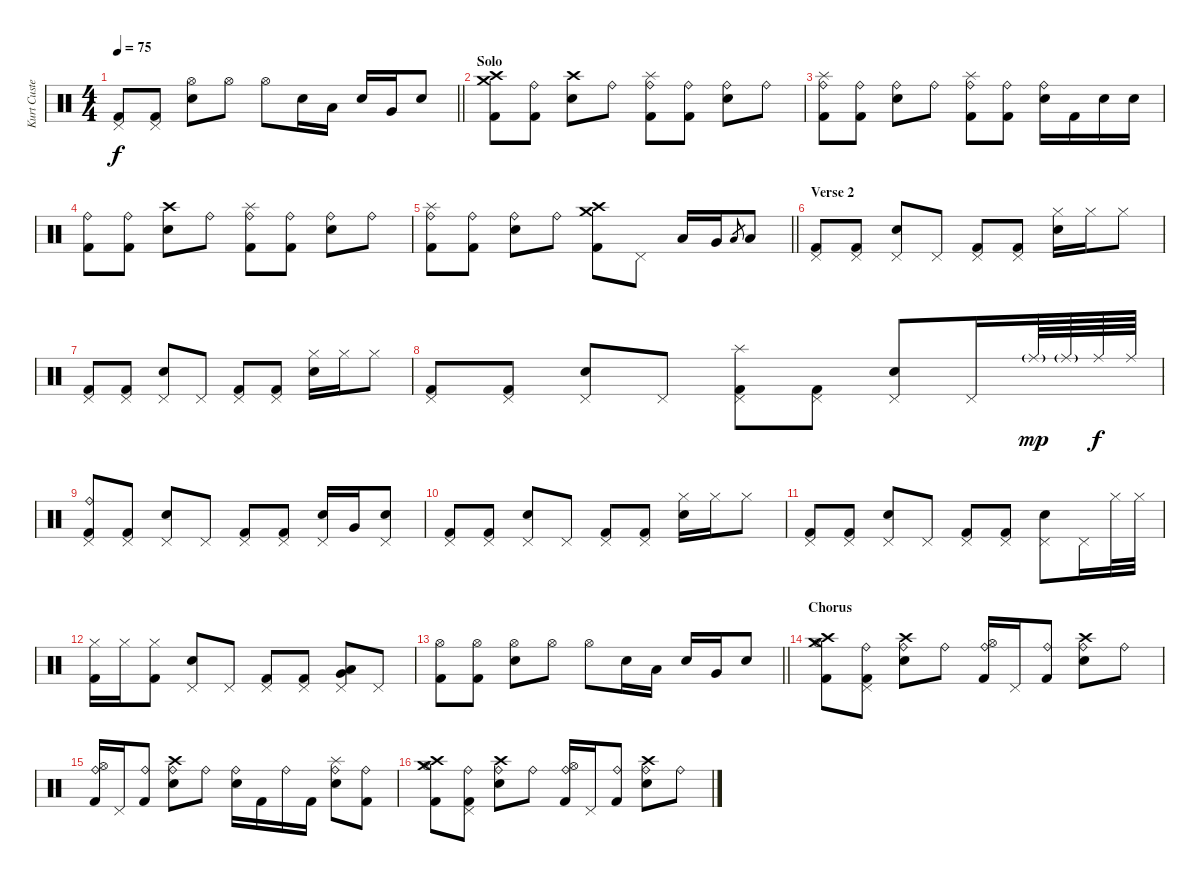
\track ("Kurt Custer - Drums and Percussion" "Kurt Custe") {instrument percussion}
\staff
\articulation defaults
\ts (4 4)
\tempo 75
\clef neutral
\barLineRight lightlight
\ks c
("Pedal Hi-Hat (hit)" "Kick (hit) 2").8{dy f} ("Pedal Hi-Hat (hit)" "Kick (hit) 2").8 ("Snare (hit) 2" "Hi-Hat (open)").8 "Hi-Hat (open)".8 "Hi-Hat (open)".8 "Snare (hit) 2".16 "Low Tom (hit)".16 "Snare (hit) 2".16 "Very Low Tom (hit)".16 "Snare (hit) 2".8 |
\section ("" "Solo")
("Crash medium (hit)" "Crash high (hit)" "Kick (hit) 2").8 ("Ride (bell)" "Kick (hit) 2").8 ("Crash high (hit)" "Snare (hit) 2").8 "Ride (bell)".8 ("Ride (bell)" "Splash (hit)" "Kick (hit) 2").8 ("Ride (bell)" "Kick (hit) 2").8 ("Ride (bell)" "Snare (hit) 2").8 "Ride (bell)".8 |
("Ride (bell)" "Splash (hit)" "Kick (hit) 2").8 ("Ride (bell)" "Kick (hit) 2").8 ("Ride (bell)" "Snare (hit) 2").8 "Ride (bell)".8 ("Ride (bell)" "Splash (hit)" "Kick (hit) 2").8 ("Ride (bell)" "Kick (hit) 2").8 ("Ride (bell)" "Snare (hit) 2").16 "Kick (hit) 2".16 "Snare (hit) 2".16 "Snare (hit) 2".16 |
("Ride (bell)" "Kick (hit) 2").8 ("Ride (bell)" "Kick (hit) 2").8 ("Crash high (hit)" "Snare (hit) 2").8 "Ride (bell)".8 ("Ride (bell)" "Splash (hit)" "Kick (hit) 2").8 ("Ride (bell)" "Kick (hit) 2").8 ("Ride (bell)" "Snare (hit) 2").8 "Ride (bell)".8 |
\barLineRight lightlight
("Ride (bell)" "Splash (hit)" "Kick (hit) 2").8 ("Ride (bell)" "Kick (hit) 2").8 ("Ride (bell)" "Snare (hit) 2").8 "Ride (bell)".8 ("Crash medium (hit)" "Crash high (hit)" "Kick (hit) 2").8 "Pedal Hi-Hat (hit)".8 "Low Tom (hit)".16 "Very Low Tom (hit)".16 "Low Floor Tom (hit)".8{gr} "Low Floor Tom (hit)".8 |
\section ("" "Verse 2")
("Pedal Hi-Hat (hit)" "Kick (hit) 2").8 ("Pedal Hi-Hat (hit)" "Kick (hit) 2").8 ("Snare (hit) 2" "Pedal Hi-Hat (hit)").8 "Pedal Hi-Hat (hit)".8 ("Pedal Hi-Hat (hit)" "Kick (hit) 2").8 ("Pedal Hi-Hat (hit)" "Kick (hit) 2").8 ("Snare (hit) 2" "Hi-Hat (closed)").16 "Hi-Hat (closed)".16 "Hi-Hat (closed)".8 |
("Pedal Hi-Hat (hit)" "Kick (hit) 2").8 ("Pedal Hi-Hat (hit)" "Kick (hit) 2").8 ("Snare (hit) 2" "Pedal Hi-Hat (hit)").8 "Pedal Hi-Hat (hit)".8 ("Pedal Hi-Hat (hit)" "Kick (hit) 2").8 ("Pedal Hi-Hat (hit)" "Kick (hit) 2").8 ("Snare (hit) 2" "Hi-Hat (closed)").16 "Hi-Hat (closed)".16 "Hi-Hat (closed)".8 |
("Pedal Hi-Hat (hit)" "Kick (hit) 2").8 ("Pedal Hi-Hat (hit)" "Kick (hit) 2").8 ("Snare (hit) 2" "Pedal Hi-Hat (hit)").8 "Pedal Hi-Hat (hit)".8 ("Splash (hit)" "Pedal Hi-Hat (hit)" "Kick (hit) 2").8 ("Pedal Hi-Hat (hit)" "Kick (hit) 2").8 ("Snare (hit) 2" "Pedal Hi-Hat (hit)").8 "Pedal Hi-Hat (hit)".16 "Ride (middle)"{g}.64{dy mp} "Ride (middle)"{g}.64 "Ride (middle)".64{dy f} "Ride (middle)".64 |
("Ride (bell)" "Pedal Hi-Hat (hit)" "Kick (hit) 2").8 ("Pedal Hi-Hat (hit)" "Kick (hit) 2").8 ("Snare (hit) 2" "Pedal Hi-Hat (hit)").8 "Pedal Hi-Hat (hit)".8 ("Pedal Hi-Hat (hit)" "Kick (hit) 2").8 ("Pedal Hi-Hat (hit)" "Kick (hit) 2").8 ("Snare (hit) 2" "Pedal Hi-Hat (hit)").16 "Very Low Tom (hit)".16 ("Snare (hit) 2" "Pedal Hi-Hat (hit)").8 |
("Pedal Hi-Hat (hit)" "Kick (hit) 2").8 ("Pedal Hi-Hat (hit)" "Kick (hit) 2").8 ("Snare (hit) 2" "Pedal Hi-Hat (hit)").8 "Pedal Hi-Hat (hit)".8 ("Pedal Hi-Hat (hit)" "Kick (hit) 2").8 ("Pedal Hi-Hat (hit)" "Kick (hit) 2").8 ("Snare (hit) 2" "Hi-Hat (closed)").16 "Hi-Hat (closed)".16 "Hi-Hat (closed)".8 |
("Pedal Hi-Hat (hit)" "Kick (hit) 2").8 ("Pedal Hi-Hat (hit)" "Kick (hit) 2").8 ("Snare (hit) 2" "Pedal Hi-Hat (hit)").8 "Pedal Hi-Hat (hit)".8 ("Pedal Hi-Hat (hit)" "Kick (hit) 2").8 ("Pedal Hi-Hat (hit)" "Kick (hit) 2").8 ("Snare (hit) 2" "Pedal Hi-Hat (hit)").8 "Pedal Hi-Hat (hit)".16 "Hi-Hat (closed)".32 "Hi-Hat (closed)".32 |
("Hi-Hat (closed)" "Kick (hit) 2").16 "Hi-Hat (closed)".16 ("Hi-Hat (closed)" "Kick (hit) 2").8 ("Snare (hit) 2" "Pedal Hi-Hat (hit)").8 "Pedal Hi-Hat (hit)".8 ("Pedal Hi-Hat (hit)" "Kick (hit) 2").8 ("Pedal Hi-Hat (hit)" "Kick (hit) 2").8 ("Low Floor Tom (hit)" "Pedal Hi-Hat (hit)" "Very Low Tom (hit)").8 "Pedal Hi-Hat (hit)".8 |
\barLineRight lightlight
("Hi-Hat (open)" "Kick (hit) 2").8 ("Hi-Hat (open)" "Kick (hit) 2").8 ("Snare (hit) 2" "Hi-Hat (open)").8 "Hi-Hat (open)".8 "Hi-Hat (open)".8 "Snare (hit) 2".16 "Low Tom (hit)".16 "Snare (hit) 2".16 "Very Low Tom (hit)".16 "Snare (hit) 2".8 |
\section ("" "Chorus")
("Crash medium (hit)" "Crash high (hit)" "Hi-Hat (open)" "Kick (hit) 2").8 ("Ride (bell)" "Pedal Hi-Hat (hit)" "Kick (hit) 2").8 ("Ride (bell)" "Crash high (hit)" "Snare (hit) 2").8 "Ride (bell)".8 ("Ride (bell)" "Hi-Hat (open)" "Kick (hit) 2").16 "Pedal Hi-Hat (hit)".16 ("Ride (bell)" "Kick (hit) 2").8 ("Ride (bell)" "Crash high (hit)" "Snare (hit) 2").8 "Ride (bell)".8 |
("Ride (bell)" "Hi-Hat (open)" "Kick (hit) 2").16 "Pedal Hi-Hat (hit)".16 ("Ride (bell)" "Kick (hit) 2").8 ("Ride (bell)" "Crash high (hit)" "Snare (hit) 2").8 "Ride (bell)".8 ("Ride (bell)" "Snare (hit) 2").16 "Kick (hit) 2".16 "Ride (bell)".16 "Kick (hit) 2".16 ("Ride (bell)" "Splash (hit)" "Snare (hit) 2").8 ("Ride (bell)" "Kick (hit) 2").8 |
("Crash medium (hit)" "Crash high (hit)" "Hi-Hat (open)" "Kick (hit) 2").8 ("Ride (bell)" "Pedal Hi-Hat (hit)" "Kick (hit) 2").8 ("Ride (bell)" "Crash high (hit)" "Snare (hit) 2").8 "Ride (bell)".8 ("Ride (bell)" "Hi-Hat (open)" "Kick (hit) 2").16 "Pedal Hi-Hat (hit)".16 ("Ride (bell)" "Kick (hit) 2").8 ("Ride (bell)" "Crash high (hit)" "Snare (hit) 2").8 "Ride (bell)".8
